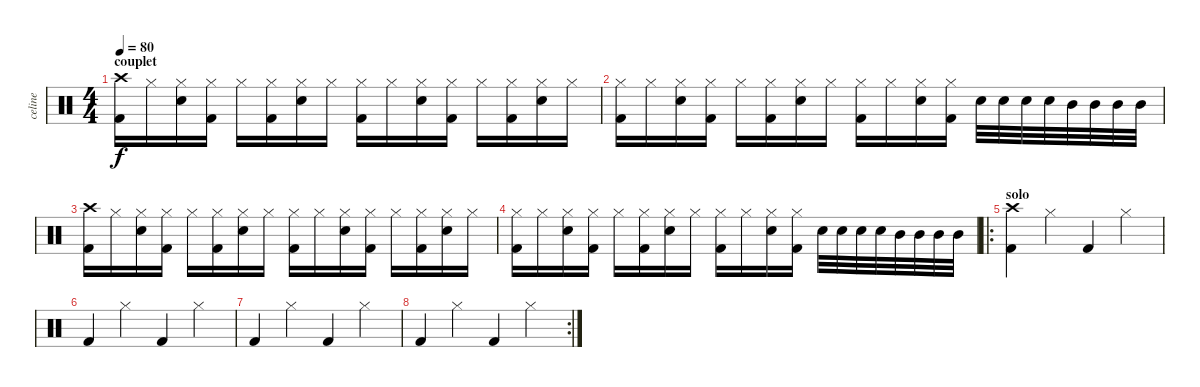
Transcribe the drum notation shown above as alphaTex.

\track ("celine" "celine") {instrument percussion}
\staff {score}
\articulation defaults
\ts (4 4)
\section ("" "couplet")
\tempo 80
\clef neutral
\ks c
("Kick (hit) 2" "Crash high (hit)").16{dy f} "Hi-Hat (closed)".16 ("Hi-Hat (closed)" "Electric Snare (hit)").16 ("Hi-Hat (closed)" "Kick (hit) 2").16 "Hi-Hat (closed)".16 ("Hi-Hat (closed)" "Kick (hit) 2").16 ("Hi-Hat (closed)" "Electric Snare (hit)").16 "Hi-Hat (closed)".16 ("Hi-Hat (closed)" "Kick (hit) 2").16 "Hi-Hat (closed)".16 ("Hi-Hat (closed)" "Electric Snare (hit)").16 ("Hi-Hat (closed)" "Kick (hit) 2").16 "Hi-Hat (closed)".16 ("Hi-Hat (closed)" "Kick (hit) 2").16 ("Hi-Hat (closed)" "Electric Snare (hit)").16 "Hi-Hat (closed)".16 |
("Hi-Hat (closed)" "Kick (hit) 2").16 "Hi-Hat (closed)".16 ("Hi-Hat (closed)" "Electric Snare (hit)").16 ("Hi-Hat (closed)" "Kick (hit) 2").16 "Hi-Hat (closed)".16 ("Hi-Hat (closed)" "Kick (hit) 2").16 ("Hi-Hat (closed)" "Electric Snare (hit)").16 "Hi-Hat (closed)".16 ("Hi-Hat (closed)" "Kick (hit) 2").16 "Hi-Hat (closed)".16 ("Hi-Hat (closed)" "Electric Snare (hit)").16 ("Hi-Hat (closed)" "Kick (hit) 2").16 "Electric Snare (hit)".32 "Electric Snare (hit)".32 "Electric Snare (hit)".32 "Electric Snare (hit)".32 "Mid Tom (hit)".32 "Mid Tom (hit)".32 "Mid Tom (hit)".32 "Mid Tom (hit)".32 |
("Crash high (hit)" "Kick (hit) 2").16 "Hi-Hat (closed)".16 ("Hi-Hat (closed)" "Electric Snare (hit)").16 ("Hi-Hat (closed)" "Kick (hit) 2").16 "Hi-Hat (closed)".16 ("Hi-Hat (closed)" "Kick (hit) 2").16 ("Hi-Hat (closed)" "Electric Snare (hit)").16 "Hi-Hat (closed)".16 ("Hi-Hat (closed)" "Kick (hit) 2").16 "Hi-Hat (closed)".16 ("Hi-Hat (closed)" "Electric Snare (hit)").16 ("Hi-Hat (closed)" "Kick (hit) 2").16 "Hi-Hat (closed)".16 ("Hi-Hat (closed)" "Kick (hit) 2").16 ("Hi-Hat (closed)" "Electric Snare (hit)").16 "Hi-Hat (closed)".16 |
("Hi-Hat (closed)" "Kick (hit) 2").16 "Hi-Hat (closed)".16 ("Hi-Hat (closed)" "Electric Snare (hit)").16 ("Hi-Hat (closed)" "Kick (hit) 2").16 "Hi-Hat (closed)".16 ("Hi-Hat (closed)" "Kick (hit) 2").16 ("Hi-Hat (closed)" "Electric Snare (hit)").16 "Hi-Hat (closed)".16 ("Hi-Hat (closed)" "Kick (hit) 2").16 "Hi-Hat (closed)".16 ("Hi-Hat (closed)" "Electric Snare (hit)").16 ("Hi-Hat (closed)" "Kick (hit) 2").16 "Electric Snare (hit)".32 "Electric Snare (hit)".32 "Electric Snare (hit)".32 "Electric Snare (hit)".32 "Mid Tom (hit)".32 "Mid Tom (hit)".32 "Mid Tom (hit)".32 "Mid Tom (hit)".32 |
\ro
\section ("" "solo")
("Crash high (hit)" "Kick (hit) 2").4 "Hi-Hat (closed)".4 "Kick (hit) 2".4 "Hi-Hat (closed)".4 |
"Kick (hit) 2".4 "Hi-Hat (closed)".4 "Kick (hit) 2".4 "Hi-Hat (closed)".4 |
"Kick (hit) 2".4 "Hi-Hat (closed)".4 "Kick (hit) 2".4 "Hi-Hat (closed)".4 |
\rc 2 "Kick (hit) 2".4 "Hi-Hat (closed)".4 "Kick (hit) 2".4 "Hi-Hat (closed)".4
